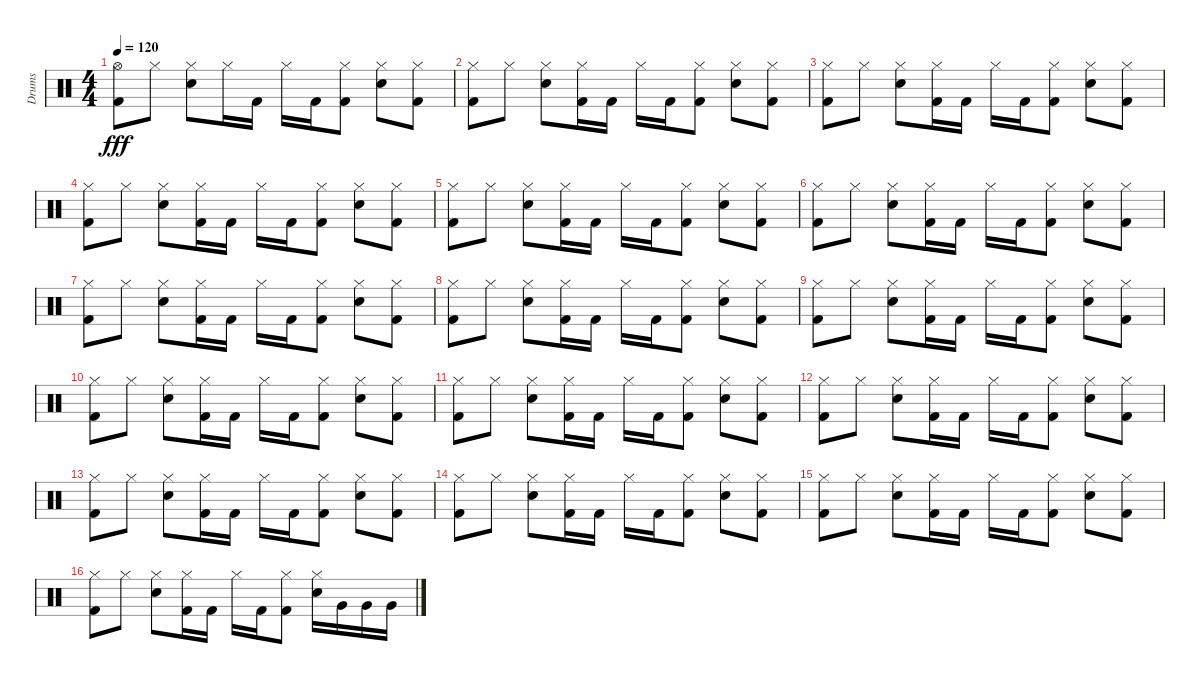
\track ("Drums" "Drums") {instrument percussion}
\staff {score}
\articulation defaults
\ts (4 4)
\tempo 120
\clef neutral
\ks c
("Hi-Hat (open)" "Kick (hit) 2").8{dy fff} "Hi-Hat (closed)".8 ("Hi-Hat (closed)" "Electric Snare (hit)").8 "Hi-Hat (closed)".16 "Kick (hit) 2".16 "Hi-Hat (closed)".16 "Kick (hit) 2".16 ("Hi-Hat (closed)" "Kick (hit) 2").8 ("Hi-Hat (closed)" "Electric Snare (hit)").8 ("Hi-Hat (closed)" "Kick (hit) 2").8 |
("Hi-Hat (closed)" "Kick (hit) 2").8 "Hi-Hat (closed)".8 ("Hi-Hat (closed)" "Electric Snare (hit)").8 ("Hi-Hat (closed)" "Kick (hit) 2").16 "Kick (hit) 2".16 "Hi-Hat (closed)".16 "Kick (hit) 2".16 ("Hi-Hat (closed)" "Kick (hit) 2").8 ("Hi-Hat (closed)" "Electric Snare (hit)").8 ("Hi-Hat (closed)" "Kick (hit) 2").8 |
("Hi-Hat (closed)" "Kick (hit) 2").8 "Hi-Hat (closed)".8 ("Hi-Hat (closed)" "Electric Snare (hit)").8 ("Hi-Hat (closed)" "Kick (hit) 2").16 "Kick (hit) 2".16 "Hi-Hat (closed)".16 "Kick (hit) 2".16 ("Hi-Hat (closed)" "Kick (hit) 2").8 ("Hi-Hat (closed)" "Electric Snare (hit)").8 ("Hi-Hat (closed)" "Kick (hit) 2").8 |
("Hi-Hat (closed)" "Kick (hit) 2").8 "Hi-Hat (closed)".8 ("Hi-Hat (closed)" "Electric Snare (hit)").8 ("Hi-Hat (closed)" "Kick (hit) 2").16 "Kick (hit) 2".16 "Hi-Hat (closed)".16 "Kick (hit) 2".16 ("Hi-Hat (closed)" "Kick (hit) 2").8 ("Hi-Hat (closed)" "Electric Snare (hit)").8 ("Hi-Hat (closed)" "Kick (hit) 2").8 |
("Hi-Hat (closed)" "Kick (hit) 2").8 "Hi-Hat (closed)".8 ("Hi-Hat (closed)" "Electric Snare (hit)").8 ("Hi-Hat (closed)" "Kick (hit) 2").16 "Kick (hit) 2".16 "Hi-Hat (closed)".16 "Kick (hit) 2".16 ("Hi-Hat (closed)" "Kick (hit) 2").8 ("Hi-Hat (closed)" "Electric Snare (hit)").8 ("Hi-Hat (closed)" "Kick (hit) 2").8 |
("Hi-Hat (closed)" "Kick (hit) 2").8 "Hi-Hat (closed)".8 ("Hi-Hat (closed)" "Electric Snare (hit)").8 ("Hi-Hat (closed)" "Kick (hit) 2").16 "Kick (hit) 2".16 "Hi-Hat (closed)".16 "Kick (hit) 2".16 ("Hi-Hat (closed)" "Kick (hit) 2").8 ("Hi-Hat (closed)" "Electric Snare (hit)").8 ("Hi-Hat (closed)" "Kick (hit) 2").8 |
("Hi-Hat (closed)" "Kick (hit) 2").8 "Hi-Hat (closed)".8 ("Hi-Hat (closed)" "Electric Snare (hit)").8 ("Hi-Hat (closed)" "Kick (hit) 2").16 "Kick (hit) 2".16 "Hi-Hat (closed)".16 "Kick (hit) 2".16 ("Hi-Hat (closed)" "Kick (hit) 2").8 ("Hi-Hat (closed)" "Electric Snare (hit)").8 ("Hi-Hat (closed)" "Kick (hit) 2").8 |
("Hi-Hat (closed)" "Kick (hit) 2").8 "Hi-Hat (closed)".8 ("Hi-Hat (closed)" "Electric Snare (hit)").8 ("Hi-Hat (closed)" "Kick (hit) 2").16 "Kick (hit) 2".16 "Hi-Hat (closed)".16 "Kick (hit) 2".16 ("Hi-Hat (closed)" "Kick (hit) 2").8 ("Hi-Hat (closed)" "Electric Snare (hit)").8 ("Hi-Hat (closed)" "Kick (hit) 2").8 |
("Hi-Hat (closed)" "Kick (hit) 2").8 "Hi-Hat (closed)".8 ("Hi-Hat (closed)" "Electric Snare (hit)").8 ("Hi-Hat (closed)" "Kick (hit) 2").16 "Kick (hit) 2".16 "Hi-Hat (closed)".16 "Kick (hit) 2".16 ("Hi-Hat (closed)" "Kick (hit) 2").8 ("Hi-Hat (closed)" "Electric Snare (hit)").8 ("Hi-Hat (closed)" "Kick (hit) 2").8 |
("Hi-Hat (closed)" "Kick (hit) 2").8 "Hi-Hat (closed)".8 ("Hi-Hat (closed)" "Electric Snare (hit)").8 ("Hi-Hat (closed)" "Kick (hit) 2").16 "Kick (hit) 2".16 "Hi-Hat (closed)".16 "Kick (hit) 2".16 ("Hi-Hat (closed)" "Kick (hit) 2").8 ("Hi-Hat (closed)" "Electric Snare (hit)").8 ("Hi-Hat (closed)" "Kick (hit) 2").8 |
("Hi-Hat (closed)" "Kick (hit) 2").8 "Hi-Hat (closed)".8 ("Hi-Hat (closed)" "Electric Snare (hit)").8 ("Hi-Hat (closed)" "Kick (hit) 2").16 "Kick (hit) 2".16 "Hi-Hat (closed)".16 "Kick (hit) 2".16 ("Hi-Hat (closed)" "Kick (hit) 2").8 ("Hi-Hat (closed)" "Electric Snare (hit)").8 ("Hi-Hat (closed)" "Kick (hit) 2").8 |
("Hi-Hat (closed)" "Kick (hit) 2").8 "Hi-Hat (closed)".8 ("Hi-Hat (closed)" "Electric Snare (hit)").8 ("Hi-Hat (closed)" "Kick (hit) 2").16 "Kick (hit) 2".16 "Hi-Hat (closed)".16 "Kick (hit) 2".16 ("Hi-Hat (closed)" "Kick (hit) 2").8 ("Hi-Hat (closed)" "Electric Snare (hit)").8 ("Hi-Hat (closed)" "Kick (hit) 2").8 |
("Hi-Hat (closed)" "Kick (hit) 2").8 "Hi-Hat (closed)".8 ("Hi-Hat (closed)" "Electric Snare (hit)").8 ("Hi-Hat (closed)" "Kick (hit) 2").16 "Kick (hit) 2".16 "Hi-Hat (closed)".16 "Kick (hit) 2".16 ("Hi-Hat (closed)" "Kick (hit) 2").8 ("Hi-Hat (closed)" "Electric Snare (hit)").8 ("Hi-Hat (closed)" "Kick (hit) 2").8 |
("Hi-Hat (closed)" "Kick (hit) 2").8 "Hi-Hat (closed)".8 ("Hi-Hat (closed)" "Electric Snare (hit)").8 ("Hi-Hat (closed)" "Kick (hit) 2").16 "Kick (hit) 2".16 "Hi-Hat (closed)".16 "Kick (hit) 2".16 ("Hi-Hat (closed)" "Kick (hit) 2").8 ("Hi-Hat (closed)" "Electric Snare (hit)").8 ("Hi-Hat (closed)" "Kick (hit) 2").8 |
("Hi-Hat (closed)" "Kick (hit) 2").8 "Hi-Hat (closed)".8 ("Hi-Hat (closed)" "Electric Snare (hit)").8 ("Hi-Hat (closed)" "Kick (hit) 2").16 "Kick (hit) 2".16 "Hi-Hat (closed)".16 "Kick (hit) 2".16 ("Hi-Hat (closed)" "Kick (hit) 2").8 ("Hi-Hat (closed)" "Electric Snare (hit)").8 ("Hi-Hat (closed)" "Kick (hit) 2").8 |
("Hi-Hat (closed)" "Kick (hit) 2").8 "Hi-Hat (closed)".8 ("Hi-Hat (closed)" "Electric Snare (hit)").8 ("Hi-Hat (closed)" "Kick (hit) 2").16 "Kick (hit) 2".16 "Hi-Hat (closed)".16 "Kick (hit) 2".16 ("Hi-Hat (closed)" "Kick (hit) 2").8 ("Hi-Hat (closed)" "Electric Snare (hit)").16 "Very Low Tom (hit)".16 "Very Low Tom (hit)".16 "Very Low Tom (hit)".16
